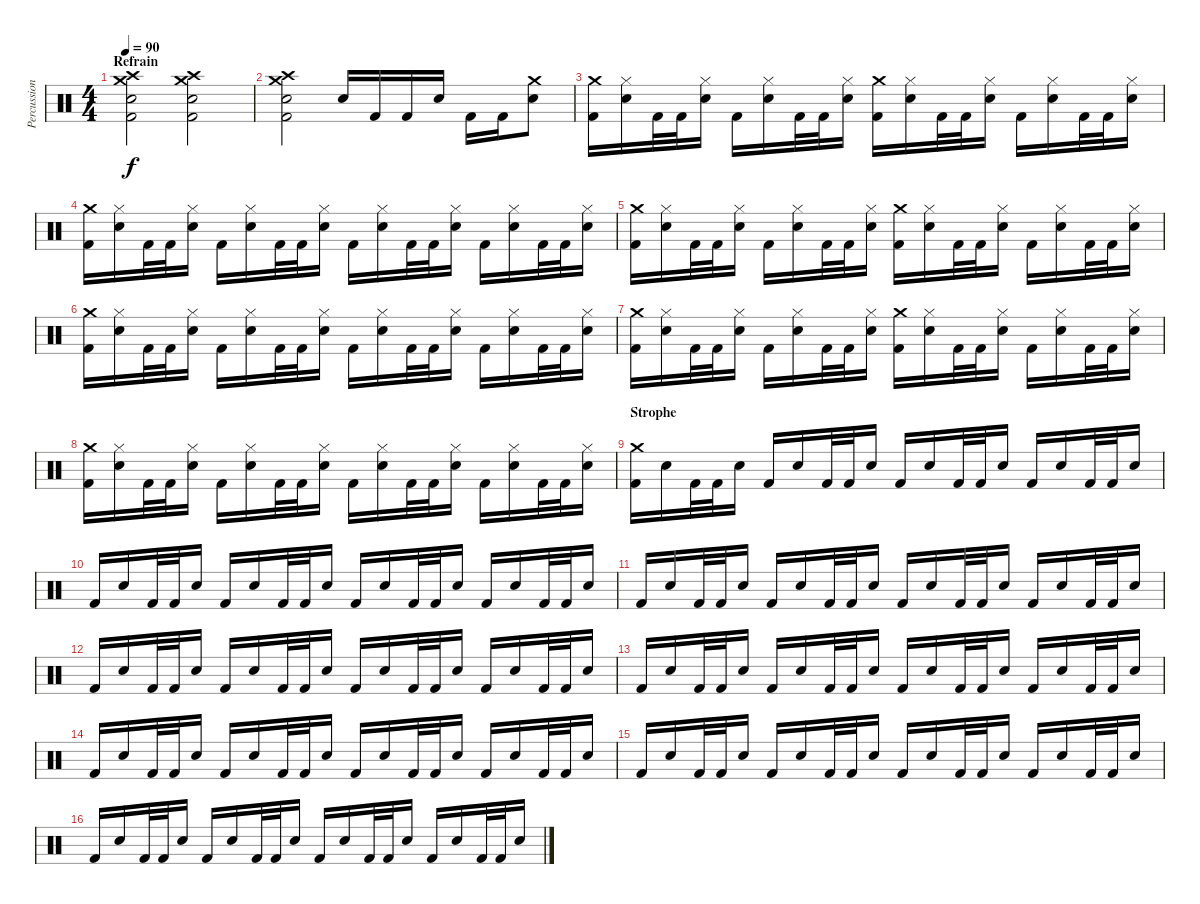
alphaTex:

\track ("Percussion" "Percussion") {instrument percussion}
\staff {score}
\articulation defaults
\ts (4 4)
\section ("" "Refrain")
\tempo 90
\clef neutral
\ks c
("Crash medium (hit)" "Crash high (hit)" "Snare (hit) 2" "Kick (hit) 2").2{dy f} ("Crash medium (hit)" "Crash high (hit)" "Snare (hit) 2" "Kick (hit) 2").2 |
("Crash medium (hit)" "Crash high (hit)" "Snare (hit) 2" "Kick (hit) 2").2 "Snare (hit) 2".16 "Kick (hit) 2".16 "Kick (hit) 2".16 "Snare (hit) 2".16 "Kick (hit) 2".16 "Kick (hit) 2".16 ("Crash medium (hit)" "Snare (hit) 2").8 |
("Crash medium (hit)" "Kick (hit) 2").16 ("Hi-Hat (closed)" "Snare (hit) 2").16 "Kick (hit) 2".32 "Kick (hit) 2".32 ("Hi-Hat (closed)" "Snare (hit) 2").16 "Kick (hit) 2".16 ("Hi-Hat (closed)" "Snare (hit) 2").16 "Kick (hit) 2".32 "Kick (hit) 2".32 ("Hi-Hat (closed)" "Snare (hit) 2").16 ("Crash medium (hit)" "Kick (hit) 2").16 ("Hi-Hat (closed)" "Snare (hit) 2").16 "Kick (hit) 2".32 "Kick (hit) 2".32 ("Hi-Hat (closed)" "Snare (hit) 2").16 "Kick (hit) 2".16 ("Hi-Hat (closed)" "Snare (hit) 2").16 "Kick (hit) 2".32 "Kick (hit) 2".32 ("Hi-Hat (closed)" "Snare (hit) 2").16 |
("Crash medium (hit)" "Kick (hit) 2").16 ("Hi-Hat (closed)" "Snare (hit) 2").16 "Kick (hit) 2".32 "Kick (hit) 2".32 ("Hi-Hat (closed)" "Snare (hit) 2").16 "Kick (hit) 2".16 ("Hi-Hat (closed)" "Snare (hit) 2").16 "Kick (hit) 2".32 "Kick (hit) 2".32 ("Hi-Hat (closed)" "Snare (hit) 2").16 "Kick (hit) 2".16 ("Hi-Hat (closed)" "Snare (hit) 2").16 "Kick (hit) 2".32 "Kick (hit) 2".32 ("Hi-Hat (closed)" "Snare (hit) 2").16 "Kick (hit) 2".16 ("Hi-Hat (closed)" "Snare (hit) 2").16 "Kick (hit) 2".32 "Kick (hit) 2".32 ("Hi-Hat (closed)" "Snare (hit) 2").16 |
("Crash medium (hit)" "Kick (hit) 2").16 ("Hi-Hat (closed)" "Snare (hit) 2").16 "Kick (hit) 2".32 "Kick (hit) 2".32 ("Hi-Hat (closed)" "Snare (hit) 2").16 "Kick (hit) 2".16 ("Hi-Hat (closed)" "Snare (hit) 2").16 "Kick (hit) 2".32 "Kick (hit) 2".32 ("Hi-Hat (closed)" "Snare (hit) 2").16 ("Crash medium (hit)" "Kick (hit) 2").16 ("Hi-Hat (closed)" "Snare (hit) 2").16 "Kick (hit) 2".32 "Kick (hit) 2".32 ("Hi-Hat (closed)" "Snare (hit) 2").16 "Kick (hit) 2".16 ("Hi-Hat (closed)" "Snare (hit) 2").16 "Kick (hit) 2".32 "Kick (hit) 2".32 ("Hi-Hat (closed)" "Snare (hit) 2").16 |
("Crash medium (hit)" "Kick (hit) 2").16 ("Hi-Hat (closed)" "Snare (hit) 2").16 "Kick (hit) 2".32 "Kick (hit) 2".32 ("Hi-Hat (closed)" "Snare (hit) 2").16 "Kick (hit) 2".16 ("Hi-Hat (closed)" "Snare (hit) 2").16 "Kick (hit) 2".32 "Kick (hit) 2".32 ("Hi-Hat (closed)" "Snare (hit) 2").16 "Kick (hit) 2".16 ("Hi-Hat (closed)" "Snare (hit) 2").16 "Kick (hit) 2".32 "Kick (hit) 2".32 ("Hi-Hat (closed)" "Snare (hit) 2").16 "Kick (hit) 2".16 ("Hi-Hat (closed)" "Snare (hit) 2").16 "Kick (hit) 2".32 "Kick (hit) 2".32 ("Hi-Hat (closed)" "Snare (hit) 2").16 |
("Crash medium (hit)" "Kick (hit) 2").16 ("Hi-Hat (closed)" "Snare (hit) 2").16 "Kick (hit) 2".32 "Kick (hit) 2".32 ("Hi-Hat (closed)" "Snare (hit) 2").16 "Kick (hit) 2".16 ("Hi-Hat (closed)" "Snare (hit) 2").16 "Kick (hit) 2".32 "Kick (hit) 2".32 ("Hi-Hat (closed)" "Snare (hit) 2").16 ("Crash medium (hit)" "Kick (hit) 2").16 ("Hi-Hat (closed)" "Snare (hit) 2").16 "Kick (hit) 2".32 "Kick (hit) 2".32 ("Hi-Hat (closed)" "Snare (hit) 2").16 "Kick (hit) 2".16 ("Hi-Hat (closed)" "Snare (hit) 2").16 "Kick (hit) 2".32 "Kick (hit) 2".32 ("Hi-Hat (closed)" "Snare (hit) 2").16 |
("Crash medium (hit)" "Kick (hit) 2").16 ("Hi-Hat (closed)" "Snare (hit) 2").16 "Kick (hit) 2".32 "Kick (hit) 2".32 ("Hi-Hat (closed)" "Snare (hit) 2").16 "Kick (hit) 2".16 ("Hi-Hat (closed)" "Snare (hit) 2").16 "Kick (hit) 2".32 "Kick (hit) 2".32 ("Hi-Hat (closed)" "Snare (hit) 2").16 "Kick (hit) 2".16 ("Hi-Hat (closed)" "Snare (hit) 2").16 "Kick (hit) 2".32 "Kick (hit) 2".32 ("Hi-Hat (closed)" "Snare (hit) 2").16 "Kick (hit) 2".16 ("Hi-Hat (closed)" "Snare (hit) 2").16 "Kick (hit) 2".32 "Kick (hit) 2".32 ("Hi-Hat (closed)" "Snare (hit) 2").16 |
\section ("" "Strophe")
("Crash medium (hit)" "Kick (hit) 2").16 "Snare (hit) 2".16 "Kick (hit) 2".32 "Kick (hit) 2".32 "Snare (hit) 2".16 "Kick (hit) 2".16 "Snare (hit) 2".16 "Kick (hit) 2".32 "Kick (hit) 2".32 "Snare (hit) 2".16 "Kick (hit) 2".16 "Snare (hit) 2".16 "Kick (hit) 2".32 "Kick (hit) 2".32 "Snare (hit) 2".16 "Kick (hit) 2".16 "Snare (hit) 2".16 "Kick (hit) 2".32 "Kick (hit) 2".32 "Snare (hit) 2".16 |
"Kick (hit) 2".16 "Snare (hit) 2".16 "Kick (hit) 2".32 "Kick (hit) 2".32 "Snare (hit) 2".16 "Kick (hit) 2".16 "Snare (hit) 2".16 "Kick (hit) 2".32 "Kick (hit) 2".32 "Snare (hit) 2".16 "Kick (hit) 2".16 "Snare (hit) 2".16 "Kick (hit) 2".32 "Kick (hit) 2".32 "Snare (hit) 2".16 "Kick (hit) 2".16 "Snare (hit) 2".16 "Kick (hit) 2".32 "Kick (hit) 2".32 "Snare (hit) 2".16 |
"Kick (hit) 2".16 "Snare (hit) 2".16 "Kick (hit) 2".32 "Kick (hit) 2".32 "Snare (hit) 2".16 "Kick (hit) 2".16 "Snare (hit) 2".16 "Kick (hit) 2".32 "Kick (hit) 2".32 "Snare (hit) 2".16 "Kick (hit) 2".16 "Snare (hit) 2".16 "Kick (hit) 2".32 "Kick (hit) 2".32 "Snare (hit) 2".16 "Kick (hit) 2".16 "Snare (hit) 2".16 "Kick (hit) 2".32 "Kick (hit) 2".32 "Snare (hit) 2".16 |
"Kick (hit) 2".16 "Snare (hit) 2".16 "Kick (hit) 2".32 "Kick (hit) 2".32 "Snare (hit) 2".16 "Kick (hit) 2".16 "Snare (hit) 2".16 "Kick (hit) 2".32 "Kick (hit) 2".32 "Snare (hit) 2".16 "Kick (hit) 2".16 "Snare (hit) 2".16 "Kick (hit) 2".32 "Kick (hit) 2".32 "Snare (hit) 2".16 "Kick (hit) 2".16 "Snare (hit) 2".16 "Kick (hit) 2".32 "Kick (hit) 2".32 "Snare (hit) 2".16 |
"Kick (hit) 2".16 "Snare (hit) 2".16 "Kick (hit) 2".32 "Kick (hit) 2".32 "Snare (hit) 2".16 "Kick (hit) 2".16 "Snare (hit) 2".16 "Kick (hit) 2".32 "Kick (hit) 2".32 "Snare (hit) 2".16 "Kick (hit) 2".16 "Snare (hit) 2".16 "Kick (hit) 2".32 "Kick (hit) 2".32 "Snare (hit) 2".16 "Kick (hit) 2".16 "Snare (hit) 2".16 "Kick (hit) 2".32 "Kick (hit) 2".32 "Snare (hit) 2".16 |
"Kick (hit) 2".16 "Snare (hit) 2".16 "Kick (hit) 2".32 "Kick (hit) 2".32 "Snare (hit) 2".16 "Kick (hit) 2".16 "Snare (hit) 2".16 "Kick (hit) 2".32 "Kick (hit) 2".32 "Snare (hit) 2".16 "Kick (hit) 2".16 "Snare (hit) 2".16 "Kick (hit) 2".32 "Kick (hit) 2".32 "Snare (hit) 2".16 "Kick (hit) 2".16 "Snare (hit) 2".16 "Kick (hit) 2".32 "Kick (hit) 2".32 "Snare (hit) 2".16 |
"Kick (hit) 2".16 "Snare (hit) 2".16 "Kick (hit) 2".32 "Kick (hit) 2".32 "Snare (hit) 2".16 "Kick (hit) 2".16 "Snare (hit) 2".16 "Kick (hit) 2".32 "Kick (hit) 2".32 "Snare (hit) 2".16 "Kick (hit) 2".16 "Snare (hit) 2".16 "Kick (hit) 2".32 "Kick (hit) 2".32 "Snare (hit) 2".16 "Kick (hit) 2".16 "Snare (hit) 2".16 "Kick (hit) 2".32 "Kick (hit) 2".32 "Snare (hit) 2".16 |
"Kick (hit) 2".16 "Snare (hit) 2".16 "Kick (hit) 2".32 "Kick (hit) 2".32 "Snare (hit) 2".16 "Kick (hit) 2".16 "Snare (hit) 2".16 "Kick (hit) 2".32 "Kick (hit) 2".32 "Snare (hit) 2".16 "Kick (hit) 2".16 "Snare (hit) 2".16 "Kick (hit) 2".32 "Kick (hit) 2".32 "Snare (hit) 2".16 "Kick (hit) 2".16 "Snare (hit) 2".16 "Kick (hit) 2".32 "Kick (hit) 2".32 "Snare (hit) 2".16
